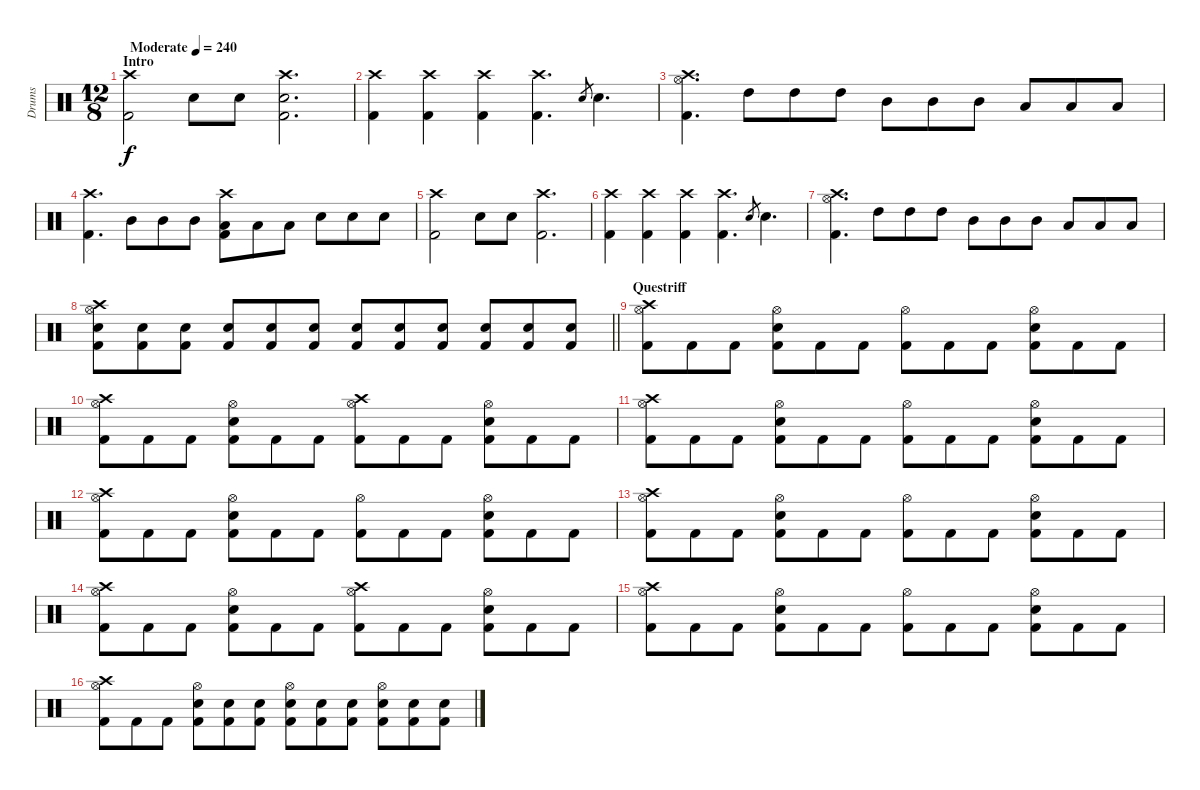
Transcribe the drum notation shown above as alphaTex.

\track ("Drums" "Drums") {instrument percussion}
\staff {score}
\articulation defaults
\ts (12 8)
\section ("" "Intro")
\tempo (240 "Moderate")
\clef neutral
\ks c
("Crash high (hit)" "Kick (hit) 2").2{dy f} "Snare (hit) 2".8 "Snare (hit) 2".8 ("Crash high (hit)" "Snare (hit) 2" "Kick (hit) 2").2{d} |
("Crash high (hit)" "Kick (hit) 2").4 ("Crash high (hit)" "Kick (hit) 2").4 ("Crash high (hit)" "Kick (hit) 2").4 ("Crash high (hit)" "Kick (hit) 2").4{d} "Snare (hit) 2".8{gr} "Snare (hit) 2".4{d} |
("Crash high (hit)" "Hi-Hat (open)" "Kick (hit) 2").4{d} "High Tom (hit)".8 "High Tom (hit)".8 "High Tom (hit)".8 "Mid Tom (hit)".8 "Mid Tom (hit)".8 "Mid Tom (hit)".8 "Low Tom (hit)".8 "Low Tom (hit)".8 "Low Tom (hit)".8 |
("Crash high (hit)" "Kick (hit) 2").4{d} "Mid Tom (hit)".8 "Mid Tom (hit)".8 "Mid Tom (hit)".8 ("Crash high (hit)" "Low Tom (hit)" "Kick (hit) 2").8 "Low Tom (hit)".8 "Low Tom (hit)".8 "Snare (hit) 2".8 "Snare (hit) 2".8 "Snare (hit) 2".8 |
("Crash high (hit)" "Kick (hit) 2").2 "Snare (hit) 2".8 "Snare (hit) 2".8 ("Crash high (hit)" "Kick (hit) 2").2{d} |
("Crash high (hit)" "Kick (hit) 2").4 ("Crash high (hit)" "Kick (hit) 2").4 ("Crash high (hit)" "Kick (hit) 2").4 ("Crash high (hit)" "Kick (hit) 2").4{d} "Snare (hit) 2".8{gr} "Snare (hit) 2".4{d} |
("Crash high (hit)" "Hi-Hat (open)" "Kick (hit) 2").4{d} "High Tom (hit)".8 "High Tom (hit)".8 "High Tom (hit)".8 "Mid Tom (hit)".8 "Mid Tom (hit)".8 "Mid Tom (hit)".8 "Low Tom (hit)".8 "Low Tom (hit)".8 "Low Tom (hit)".8 |
\barLineRight lightlight
("Crash high (hit)" "Hi-Hat (open)" "Snare (hit) 2" "Kick (hit) 2").8 ("Snare (hit) 2" "Kick (hit) 2").8 ("Snare (hit) 2" "Kick (hit) 2").8 ("Snare (hit) 2" "Kick (hit) 2").8 ("Snare (hit) 2" "Kick (hit) 2").8 ("Snare (hit) 2" "Kick (hit) 2").8 ("Snare (hit) 2" "Kick (hit) 2").8 ("Snare (hit) 2" "Kick (hit) 2").8 ("Snare (hit) 2" "Kick (hit) 2").8 ("Snare (hit) 2" "Kick (hit) 2").8 ("Snare (hit) 2" "Kick (hit) 2").8 ("Snare (hit) 2" "Kick (hit) 2").8 |
\section ("" "Questriff")
("Crash high (hit)" "Hi-Hat (open)" "Kick (hit) 2").8 "Kick (hit) 2".8 "Kick (hit) 2".8 ("Hi-Hat (open)" "Snare (hit) 2" "Kick (hit) 2").8 "Kick (hit) 2".8 "Kick (hit) 2".8 ("Hi-Hat (open)" "Kick (hit) 2").8 "Kick (hit) 2".8 "Kick (hit) 2".8 ("Hi-Hat (open)" "Snare (hit) 2" "Kick (hit) 2").8 "Kick (hit) 2".8 "Kick (hit) 2".8 |
("Crash high (hit)" "Hi-Hat (open)" "Kick (hit) 2").8 "Kick (hit) 2".8 "Kick (hit) 2".8 ("Hi-Hat (open)" "Snare (hit) 2" "Kick (hit) 2").8 "Kick (hit) 2".8 "Kick (hit) 2".8 ("Crash high (hit)" "Hi-Hat (open)" "Kick (hit) 2").8 "Kick (hit) 2".8 "Kick (hit) 2".8 ("Hi-Hat (open)" "Snare (hit) 2" "Kick (hit) 2").8 "Kick (hit) 2".8 "Kick (hit) 2".8 |
("Crash high (hit)" "Hi-Hat (open)" "Kick (hit) 2").8 "Kick (hit) 2".8 "Kick (hit) 2".8 ("Hi-Hat (open)" "Snare (hit) 2" "Kick (hit) 2").8 "Kick (hit) 2".8 "Kick (hit) 2".8 ("Hi-Hat (open)" "Kick (hit) 2").8 "Kick (hit) 2".8 "Kick (hit) 2".8 ("Hi-Hat (open)" "Snare (hit) 2" "Kick (hit) 2").8 "Kick (hit) 2".8 "Kick (hit) 2".8 |
("Crash high (hit)" "Hi-Hat (open)" "Kick (hit) 2").8 "Kick (hit) 2".8 "Kick (hit) 2".8 ("Hi-Hat (open)" "Snare (hit) 2" "Kick (hit) 2").8 "Kick (hit) 2".8 "Kick (hit) 2".8 ("Hi-Hat (open)" "Kick (hit) 2").8 "Kick (hit) 2".8 "Kick (hit) 2".8 ("Hi-Hat (open)" "Snare (hit) 2" "Kick (hit) 2").8 "Kick (hit) 2".8 "Kick (hit) 2".8 |
("Crash high (hit)" "Hi-Hat (open)" "Kick (hit) 2").8 "Kick (hit) 2".8 "Kick (hit) 2".8 ("Hi-Hat (open)" "Snare (hit) 2" "Kick (hit) 2").8 "Kick (hit) 2".8 "Kick (hit) 2".8 ("Hi-Hat (open)" "Kick (hit) 2").8 "Kick (hit) 2".8 "Kick (hit) 2".8 ("Hi-Hat (open)" "Snare (hit) 2" "Kick (hit) 2").8 "Kick (hit) 2".8 "Kick (hit) 2".8 |
("Crash high (hit)" "Hi-Hat (open)" "Kick (hit) 2").8 "Kick (hit) 2".8 "Kick (hit) 2".8 ("Hi-Hat (open)" "Snare (hit) 2" "Kick (hit) 2").8 "Kick (hit) 2".8 "Kick (hit) 2".8 ("Crash high (hit)" "Hi-Hat (open)" "Kick (hit) 2").8 "Kick (hit) 2".8 "Kick (hit) 2".8 ("Hi-Hat (open)" "Snare (hit) 2" "Kick (hit) 2").8 "Kick (hit) 2".8 "Kick (hit) 2".8 |
("Crash high (hit)" "Hi-Hat (open)" "Kick (hit) 2").8 "Kick (hit) 2".8 "Kick (hit) 2".8 ("Hi-Hat (open)" "Snare (hit) 2" "Kick (hit) 2").8 "Kick (hit) 2".8 "Kick (hit) 2".8 ("Hi-Hat (open)" "Kick (hit) 2").8 "Kick (hit) 2".8 "Kick (hit) 2".8 ("Hi-Hat (open)" "Snare (hit) 2" "Kick (hit) 2").8 "Kick (hit) 2".8 "Kick (hit) 2".8 |
("Crash high (hit)" "Hi-Hat (open)" "Kick (hit) 2").8 "Kick (hit) 2".8 "Kick (hit) 2".8 ("Hi-Hat (open)" "Snare (hit) 2" "Kick (hit) 2").8 ("Snare (hit) 2" "Kick (hit) 2").8 ("Snare (hit) 2" "Kick (hit) 2").8 ("Hi-Hat (open)" "Snare (hit) 2" "Kick (hit) 2").8 ("Snare (hit) 2" "Kick (hit) 2").8 ("Snare (hit) 2" "Kick (hit) 2").8 ("Hi-Hat (open)" "Snare (hit) 2" "Kick (hit) 2").8 ("Snare (hit) 2" "Kick (hit) 2").8 ("Snare (hit) 2" "Kick (hit) 2").8
